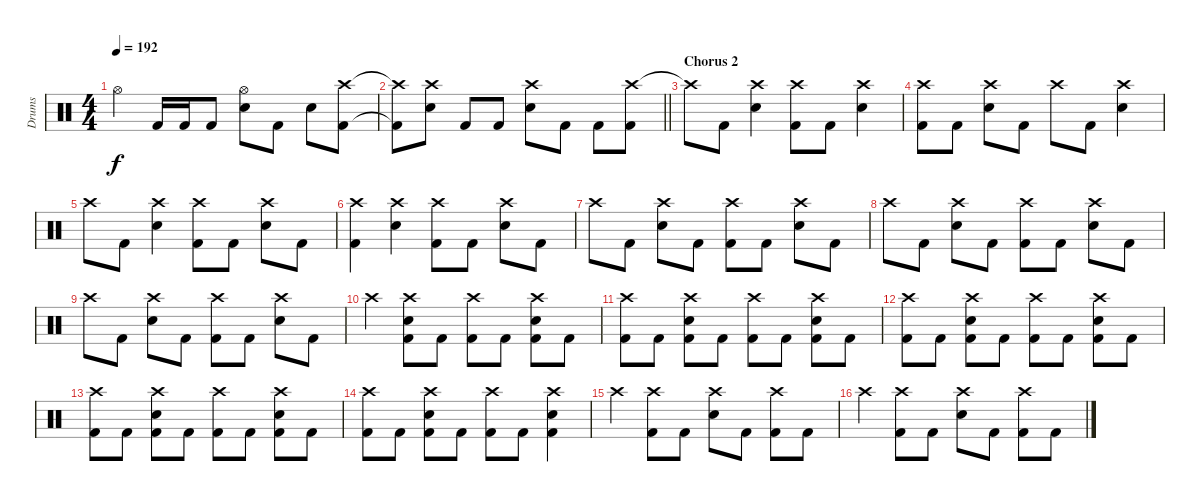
\track ("Drums" "Drums") {instrument percussion}
\staff {score}
\articulation defaults
\ts (4 4)
\tempo 192
\clef neutral
\ks c "Hi-Hat (open)".4{dy f} "Kick (hit) 2".16 "Kick (hit) 2".16 "Kick (hit) 2".8
("Hi-Hat (open)" "Electric Snare (hit)").8 "Kick (hit) 2".8 "Electric Snare (hit)".8 ("Crash high (hit)" "Kick (hit) 2").8 |
\barLineRight lightlight
("Crash high (hit)"{t} "Kick (hit) 2"{t}).8 ("Crash high (hit)" "Electric Snare (hit)").8 "Kick (hit) 2".8 "Kick (hit) 2".8 ("Crash high (hit)" "Electric Snare (hit)").8 "Kick (hit) 2".8 "Kick (hit) 2".8 ("Crash high (hit)" "Kick (hit) 2").8 |
\section ("" "Chorus 2")
"Crash high (hit)"{t}.8 "Kick (hit) 2".8 ("Crash high (hit)" "Electric Snare (hit)").4 ("Crash high (hit)" "Kick (hit) 2").8 "Kick (hit) 2".8 ("Crash high (hit)" "Electric Snare (hit)").4 |
("Crash high (hit)" "Kick (hit) 2").8 "Kick (hit) 2".8 ("Crash high (hit)" "Electric Snare (hit)").8 "Kick (hit) 2".8 "Crash high (hit)".8 "Kick (hit) 2".8 ("Crash high (hit)" "Electric Snare (hit)").4 |
"Crash high (hit)".8 "Kick (hit) 2".8 ("Crash high (hit)" "Electric Snare (hit)").4 ("Crash high (hit)" "Kick (hit) 2").8 "Kick (hit) 2".8 ("Crash high (hit)" "Electric Snare (hit)").8 "Kick (hit) 2".8 |
("Crash high (hit)" "Kick (hit) 2").4 ("Crash high (hit)" "Electric Snare (hit)").4 ("Crash high (hit)" "Kick (hit) 2").8 "Kick (hit) 2".8 ("Crash high (hit)" "Electric Snare (hit)").8 "Kick (hit) 2".8 |
"Crash high (hit)".8 "Kick (hit) 2".8 ("Crash high (hit)" "Electric Snare (hit)").8 "Kick (hit) 2".8 ("Crash high (hit)" "Kick (hit) 2").8 "Kick (hit) 2".8 ("Crash high (hit)" "Electric Snare (hit)").8 "Kick (hit) 2".8 |
"Crash high (hit)".8 "Kick (hit) 2".8 ("Crash high (hit)" "Electric Snare (hit)").8 "Kick (hit) 2".8 ("Crash high (hit)" "Kick (hit) 2").8 "Kick (hit) 2".8 ("Crash high (hit)" "Electric Snare (hit)").8 "Kick (hit) 2".8 |
"Crash high (hit)".8 "Kick (hit) 2".8 ("Crash high (hit)" "Electric Snare (hit)").8 "Kick (hit) 2".8 ("Crash high (hit)" "Kick (hit) 2").8 "Kick (hit) 2".8 ("Crash high (hit)" "Electric Snare (hit)").8 "Kick (hit) 2".8 |
"Crash high (hit)".4 ("Crash high (hit)" "Electric Snare (hit)" "Kick (hit) 2").8 "Kick (hit) 2".8 ("Crash high (hit)" "Kick (hit) 2").8 "Kick (hit) 2".8 ("Crash high (hit)" "Electric Snare (hit)" "Kick (hit) 2").8 "Kick (hit) 2".8 |
("Crash high (hit)" "Kick (hit) 2").8 "Kick (hit) 2".8 ("Crash high (hit)" "Electric Snare (hit)" "Kick (hit) 2").8 "Kick (hit) 2".8 ("Crash high (hit)" "Kick (hit) 2").8 "Kick (hit) 2".8 ("Crash high (hit)" "Electric Snare (hit)" "Kick (hit) 2").8 "Kick (hit) 2".8 |
("Crash high (hit)" "Kick (hit) 2").8 "Kick (hit) 2".8 ("Crash high (hit)" "Electric Snare (hit)" "Kick (hit) 2").8 "Kick (hit) 2".8 ("Crash high (hit)" "Kick (hit) 2").8 "Kick (hit) 2".8 ("Crash high (hit)" "Electric Snare (hit)" "Kick (hit) 2").8 "Kick (hit) 2".8 |
("Crash high (hit)" "Kick (hit) 2").8 "Kick (hit) 2".8 ("Crash high (hit)" "Electric Snare (hit)" "Kick (hit) 2").8 "Kick (hit) 2".8 ("Crash high (hit)" "Kick (hit) 2").8 "Kick (hit) 2".8 ("Crash high (hit)" "Electric Snare (hit)" "Kick (hit) 2").8 "Kick (hit) 2".8 |
("Crash high (hit)" "Kick (hit) 2").8 "Kick (hit) 2".8 ("Crash high (hit)" "Electric Snare (hit)" "Kick (hit) 2").8 "Kick (hit) 2".8 ("Crash high (hit)" "Kick (hit) 2").8 "Kick (hit) 2".8 ("Crash high (hit)" "Electric Snare (hit)" "Kick (hit) 2").4 |
"Crash high (hit)".4 ("Crash high (hit)" "Kick (hit) 2").8 "Kick (hit) 2".8 ("Crash high (hit)" "Electric Snare (hit)").8 "Kick (hit) 2".8 ("Crash high (hit)" "Kick (hit) 2").8 "Kick (hit) 2".8 |
"Crash high (hit)".4 ("Crash high (hit)" "Kick (hit) 2").8 "Kick (hit) 2".8 ("Crash high (hit)" "Electric Snare (hit)").8 "Kick (hit) 2".8 ("Crash high (hit)" "Kick (hit) 2").8 "Kick (hit) 2".8
